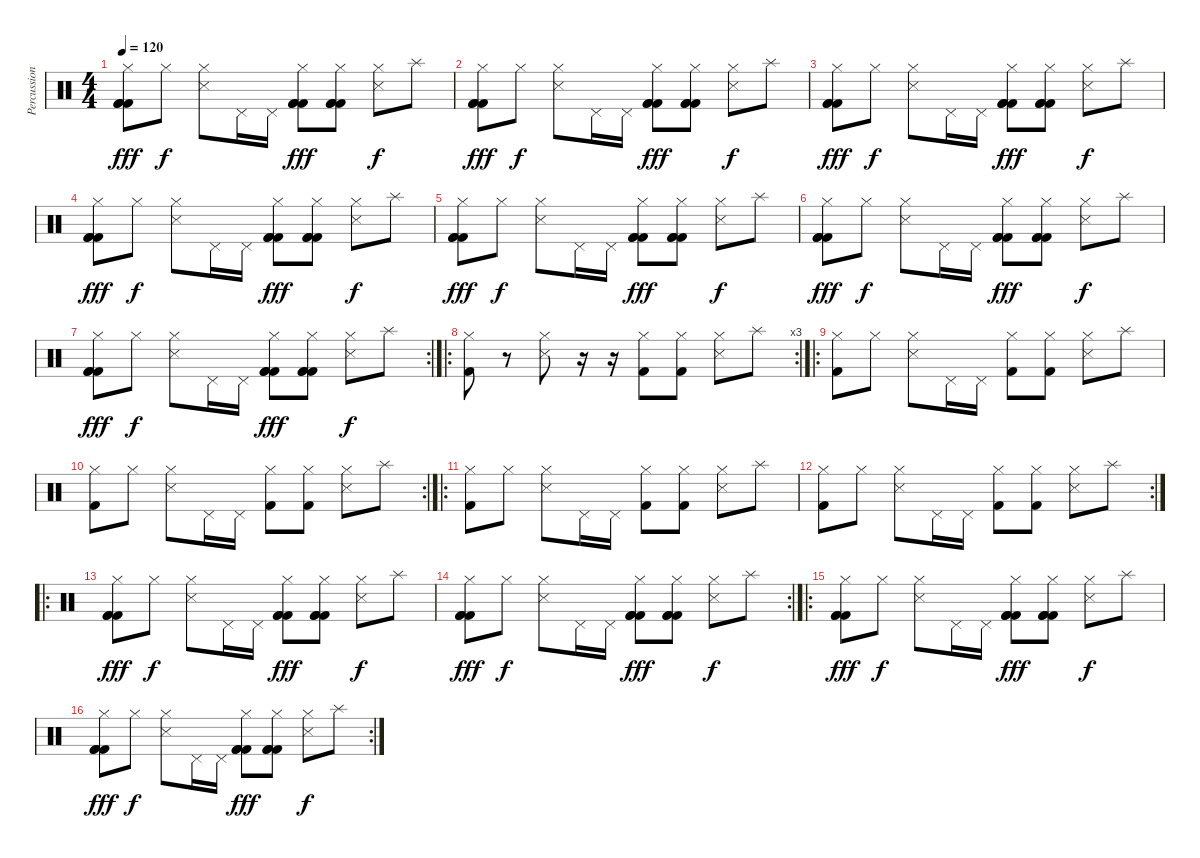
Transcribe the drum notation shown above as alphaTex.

\track ("Percussion" "Percussion") {instrument percussion}
\staff {score}
\articulation defaults
\ts (4 4)
\tempo 120
\clef neutral
\ks c
("Hi-Hat (closed)" "Kick (hit) 2" "Kick (hit) 2" "Kick (hit) 2").8{dy fff} "Hi-Hat (closed)".8{dy f} ("Hi-Hat (closed)" "Snare (side stick) 3").8 "Pedal Hi-Hat (hit)".16 "Pedal Hi-Hat (hit)".16 ("Hi-Hat (closed)" "Kick (hit) 2" "Kick (hit) 2" "Kick (hit) 2").8{dy fff} ("Hi-Hat (closed)" "Kick (hit) 2" "Kick (hit) 2" "Kick (hit) 2").8 ("Hi-Hat (closed)" "Snare (side stick) 3").8{dy f} "Splash (hit)".8 |
("Hi-Hat (closed)" "Kick (hit) 2" "Kick (hit) 2" "Kick (hit) 2").8{dy fff} "Hi-Hat (closed)".8{dy f} ("Hi-Hat (closed)" "Snare (side stick) 3").8 "Pedal Hi-Hat (hit)".16 "Pedal Hi-Hat (hit)".16 ("Hi-Hat (closed)" "Kick (hit) 2" "Kick (hit) 2" "Kick (hit) 2").8{dy fff} ("Hi-Hat (closed)" "Kick (hit) 2" "Kick (hit) 2" "Kick (hit) 2").8 ("Hi-Hat (closed)" "Snare (side stick) 3").8{dy f} "Splash (hit)".8 |
("Hi-Hat (closed)" "Kick (hit) 2" "Kick (hit) 2" "Kick (hit) 2").8{dy fff} "Hi-Hat (closed)".8{dy f} ("Hi-Hat (closed)" "Snare (side stick) 3").8 "Pedal Hi-Hat (hit)".16 "Pedal Hi-Hat (hit)".16 ("Hi-Hat (closed)" "Kick (hit) 2" "Kick (hit) 2" "Kick (hit) 2").8{dy fff} ("Hi-Hat (closed)" "Kick (hit) 2" "Kick (hit) 2" "Kick (hit) 2").8 ("Hi-Hat (closed)" "Snare (side stick) 3").8{dy f} "Splash (hit)".8 |
("Hi-Hat (closed)" "Kick (hit) 2" "Kick (hit) 2" "Kick (hit) 2").8{dy fff} "Hi-Hat (closed)".8{dy f} ("Hi-Hat (closed)" "Snare (side stick) 3").8 "Pedal Hi-Hat (hit)".16 "Pedal Hi-Hat (hit)".16 ("Hi-Hat (closed)" "Kick (hit) 2" "Kick (hit) 2" "Kick (hit) 2").8{dy fff} ("Hi-Hat (closed)" "Kick (hit) 2" "Kick (hit) 2" "Kick (hit) 2").8 ("Hi-Hat (closed)" "Snare (side stick) 3").8{dy f} "Splash (hit)".8 |
("Hi-Hat (closed)" "Kick (hit) 2" "Kick (hit) 2" "Kick (hit) 2").8{dy fff} "Hi-Hat (closed)".8{dy f} ("Hi-Hat (closed)" "Snare (side stick) 3").8 "Pedal Hi-Hat (hit)".16 "Pedal Hi-Hat (hit)".16 ("Hi-Hat (closed)" "Kick (hit) 2" "Kick (hit) 2" "Kick (hit) 2").8{dy fff} ("Hi-Hat (closed)" "Kick (hit) 2" "Kick (hit) 2" "Kick (hit) 2").8 ("Hi-Hat (closed)" "Snare (side stick) 3").8{dy f} "Splash (hit)".8 |
("Hi-Hat (closed)" "Kick (hit) 2" "Kick (hit) 2" "Kick (hit) 2").8{dy fff} "Hi-Hat (closed)".8{dy f} ("Hi-Hat (closed)" "Snare (side stick) 3").8 "Pedal Hi-Hat (hit)".16 "Pedal Hi-Hat (hit)".16 ("Hi-Hat (closed)" "Kick (hit) 2" "Kick (hit) 2" "Kick (hit) 2").8{dy fff} ("Hi-Hat (closed)" "Kick (hit) 2" "Kick (hit) 2" "Kick (hit) 2").8 ("Hi-Hat (closed)" "Snare (side stick) 3").8{dy f} "Splash (hit)".8 |
\rc 2
("Hi-Hat (closed)" "Kick (hit) 2" "Kick (hit) 2" "Kick (hit) 2").8{dy fff} "Hi-Hat (closed)".8{dy f} ("Hi-Hat (closed)" "Snare (side stick) 3").8 "Pedal Hi-Hat (hit)".16 "Pedal Hi-Hat (hit)".16 ("Hi-Hat (closed)" "Kick (hit) 2" "Kick (hit) 2" "Kick (hit) 2").8{dy fff} ("Hi-Hat (closed)" "Kick (hit) 2" "Kick (hit) 2" "Kick (hit) 2").8 ("Hi-Hat (closed)" "Snare (side stick) 3").8{dy f} "Splash (hit)".8 |
\ro
\rc 3
("Hi-Hat (closed)" "Kick (hit) 2").8 r.8 ("Hi-Hat (closed)" "Snare (side stick) 3").8 r.16 r.16 ("Hi-Hat (closed)" "Kick (hit) 2").8 ("Hi-Hat (closed)" "Kick (hit) 2").8 ("Hi-Hat (closed)" "Snare (side stick) 3").8 "Splash (hit)".8 |
\ro
("Hi-Hat (closed)" "Kick (hit) 2").8 "Hi-Hat (closed)".8 ("Hi-Hat (closed)" "Snare (side stick) 3").8 "Pedal Hi-Hat (hit)".16 "Pedal Hi-Hat (hit)".16 ("Hi-Hat (closed)" "Kick (hit) 2").8 ("Hi-Hat (closed)" "Kick (hit) 2").8 ("Hi-Hat (closed)" "Snare (side stick) 3").8 "Splash (hit)".8 |
\rc 2
("Hi-Hat (closed)" "Kick (hit) 2").8 "Hi-Hat (closed)".8 ("Hi-Hat (closed)" "Snare (side stick) 3").8 "Pedal Hi-Hat (hit)".16 "Pedal Hi-Hat (hit)".16 ("Hi-Hat (closed)" "Kick (hit) 2").8 ("Hi-Hat (closed)" "Kick (hit) 2").8 ("Hi-Hat (closed)" "Snare (side stick) 3").8 "Splash (hit)".8 |
\ro
("Hi-Hat (closed)" "Kick (hit) 2").8 "Hi-Hat (closed)".8 ("Hi-Hat (closed)" "Snare (side stick) 3").8 "Pedal Hi-Hat (hit)".16 "Pedal Hi-Hat (hit)".16 ("Hi-Hat (closed)" "Kick (hit) 2").8 ("Hi-Hat (closed)" "Kick (hit) 2").8 ("Hi-Hat (closed)" "Snare (side stick) 3").8 "Splash (hit)".8 |
\rc 2
("Hi-Hat (closed)" "Kick (hit) 2").8 "Hi-Hat (closed)".8 ("Hi-Hat (closed)" "Snare (side stick) 3").8 "Pedal Hi-Hat (hit)".16 "Pedal Hi-Hat (hit)".16 ("Hi-Hat (closed)" "Kick (hit) 2").8 ("Hi-Hat (closed)" "Kick (hit) 2").8 ("Hi-Hat (closed)" "Snare (side stick) 3").8 "Splash (hit)".8 |
\ro
("Hi-Hat (closed)" "Kick (hit) 2" "Kick (hit) 2" "Kick (hit) 2").8{dy fff} "Hi-Hat (closed)".8{dy f} ("Hi-Hat (closed)" "Snare (side stick) 3").8 "Pedal Hi-Hat (hit)".16 "Pedal Hi-Hat (hit)".16 ("Hi-Hat (closed)" "Kick (hit) 2" "Kick (hit) 2" "Kick (hit) 2").8{dy fff} ("Hi-Hat (closed)" "Kick (hit) 2" "Kick (hit) 2" "Kick (hit) 2").8 ("Hi-Hat (closed)" "Snare (side stick) 3").8{dy f} "Splash (hit)".8 |
\rc 2
("Hi-Hat (closed)" "Kick (hit) 2" "Kick (hit) 2" "Kick (hit) 2").8{dy fff} "Hi-Hat (closed)".8{dy f} ("Hi-Hat (closed)" "Snare (side stick) 3").8 "Pedal Hi-Hat (hit)".16 "Pedal Hi-Hat (hit)".16 ("Hi-Hat (closed)" "Kick (hit) 2" "Kick (hit) 2" "Kick (hit) 2").8{dy fff} ("Hi-Hat (closed)" "Kick (hit) 2" "Kick (hit) 2" "Kick (hit) 2").8 ("Hi-Hat (closed)" "Snare (side stick) 3").8{dy f} "Splash (hit)".8 |
\ro
("Hi-Hat (closed)" "Kick (hit) 2" "Kick (hit) 2" "Kick (hit) 2").8{dy fff} "Hi-Hat (closed)".8{dy f} ("Hi-Hat (closed)" "Snare (side stick) 3").8 "Pedal Hi-Hat (hit)".16 "Pedal Hi-Hat (hit)".16 ("Hi-Hat (closed)" "Kick (hit) 2" "Kick (hit) 2" "Kick (hit) 2").8{dy fff} ("Hi-Hat (closed)" "Kick (hit) 2" "Kick (hit) 2" "Kick (hit) 2").8 ("Hi-Hat (closed)" "Snare (side stick) 3").8{dy f} "Splash (hit)".8 |
\rc 2
("Hi-Hat (closed)" "Kick (hit) 2" "Kick (hit) 2" "Kick (hit) 2").8{dy fff} "Hi-Hat (closed)".8{dy f} ("Hi-Hat (closed)" "Snare (side stick) 3").8 "Pedal Hi-Hat (hit)".16 "Pedal Hi-Hat (hit)".16 ("Hi-Hat (closed)" "Kick (hit) 2" "Kick (hit) 2" "Kick (hit) 2").8{dy fff} ("Hi-Hat (closed)" "Kick (hit) 2" "Kick (hit) 2" "Kick (hit) 2").8 ("Hi-Hat (closed)" "Snare (side stick) 3").8{dy f} "Splash (hit)".8
